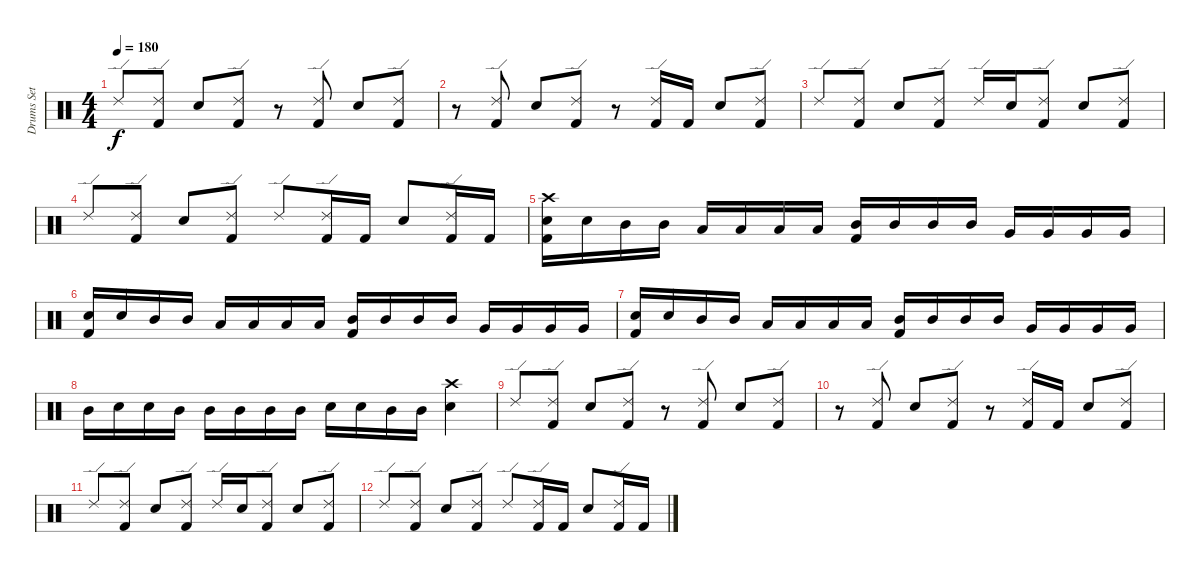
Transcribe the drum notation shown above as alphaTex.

\track ("Drums Set" "Drums Set") {instrument percussion}
\staff {score}
\articulation defaults
\ts (4 4)
\tempo 180
\clef neutral
\ks c "Ride (edge) 2".8{dy f}
("Ride (edge) 2" "Kick (hit) 2").8 "Snare (hit) 2".8 ("Ride (edge) 2" "Kick (hit) 2").8 r.8 ("Ride (edge) 2" "Kick (hit) 2").8 "Snare (hit) 2".8 ("Ride (edge) 2" "Kick (hit) 2").8 |
r.8 ("Ride (edge) 2" "Kick (hit) 2").8 "Snare (hit) 2".8 ("Ride (edge) 2" "Kick (hit) 2").8 r.8 ("Ride (edge) 2" "Kick (hit) 2").16 "Kick (hit) 2".16 "Snare (hit) 2".8 ("Ride (edge) 2" "Kick (hit) 2").8 |
"Ride (edge) 2".8 ("Ride (edge) 2" "Kick (hit) 2").8 "Snare (hit) 2".8 ("Ride (edge) 2" "Kick (hit) 2").8 "Ride (edge) 2".16 "Snare (hit) 2".16 ("Ride (edge) 2" "Kick (hit) 2").8 "Snare (hit) 2".8 ("Ride (edge) 2" "Kick (hit) 2").8 |
"Ride (edge) 2".8 ("Ride (edge) 2" "Kick (hit) 2").8 "Snare (hit) 2".8 ("Ride (edge) 2" "Kick (hit) 2").8 "Ride (edge) 2".8 ("Ride (edge) 2" "Kick (hit) 2").16 "Kick (hit) 2".16 "Snare (hit) 2".8 ("Ride (edge) 2" "Kick (hit) 2").16 "Kick (hit) 2".16 |
("Crash high (hit)" "Snare (hit) 2" "Kick (hit) 2").16 "Snare (hit) 2".16 "Mid Tom (hit)".16 "Mid Tom (hit)".16 "Low Tom (hit)".16 "Low Tom (hit)".16 "Low Tom (hit)".16 "Low Tom (hit)".16 ("Mid Tom (hit)" "Kick (hit) 2").16 "Mid Tom (hit)".16 "Mid Tom (hit)".16 "Mid Tom (hit)".16 "Very Low Tom (hit)".16 "Very Low Tom (hit)".16 "Very Low Tom (hit)".16 "Very Low Tom (hit)".16 |
("Snare (hit) 2" "Kick (hit) 2").16 "Snare (hit) 2".16 "Mid Tom (hit)".16 "Mid Tom (hit)".16 "Low Tom (hit)".16 "Low Tom (hit)".16 "Low Tom (hit)".16 "Low Tom (hit)".16 ("Mid Tom (hit)" "Kick (hit) 2").16 "Mid Tom (hit)".16 "Mid Tom (hit)".16 "Mid Tom (hit)".16 "Very Low Tom (hit)".16 "Very Low Tom (hit)".16 "Very Low Tom (hit)".16 "Very Low Tom (hit)".16 |
("Snare (hit) 2" "Kick (hit) 2").16 "Snare (hit) 2".16 "Mid Tom (hit)".16 "Mid Tom (hit)".16 "Low Tom (hit)".16 "Low Tom (hit)".16 "Low Tom (hit)".16 "Low Tom (hit)".16 ("Mid Tom (hit)" "Kick (hit) 2").16 "Mid Tom (hit)".16 "Mid Tom (hit)".16 "Mid Tom (hit)".16 "Very Low Tom (hit)".16 "Very Low Tom (hit)".16 "Very Low Tom (hit)".16 "Very Low Tom (hit)".16 |
"Mid Tom (hit)".16 "Snare (hit) 2".16 "Snare (hit) 2".16 "Mid Tom (hit)".16 "Mid Tom (hit)".16 "Mid Tom (hit)".16 "Mid Tom (hit)".16 "Mid Tom (hit)".16 "Snare (hit) 2".16 "Snare (hit) 2".16 "Mid Tom (hit)".16 "Mid Tom (hit)".16 ("Crash high (hit)" "Snare (hit) 2").4 |
"Ride (edge) 2".8 ("Ride (edge) 2" "Kick (hit) 2").8 "Snare (hit) 2".8 ("Ride (edge) 2" "Kick (hit) 2").8 r.8 ("Ride (edge) 2" "Kick (hit) 2").8 "Snare (hit) 2".8 ("Ride (edge) 2" "Kick (hit) 2").8 |
r.8 ("Ride (edge) 2" "Kick (hit) 2").8 "Snare (hit) 2".8 ("Ride (edge) 2" "Kick (hit) 2").8 r.8 ("Ride (edge) 2" "Kick (hit) 2").16 "Kick (hit) 2".16 "Snare (hit) 2".8 ("Ride (edge) 2" "Kick (hit) 2").8 |
"Ride (edge) 2".8 ("Ride (edge) 2" "Kick (hit) 2").8 "Snare (hit) 2".8 ("Ride (edge) 2" "Kick (hit) 2").8 "Ride (edge) 2".16 "Snare (hit) 2".16 ("Ride (edge) 2" "Kick (hit) 2").8 "Snare (hit) 2".8 ("Ride (edge) 2" "Kick (hit) 2").8 |
"Ride (edge) 2".8 ("Ride (edge) 2" "Kick (hit) 2").8 "Snare (hit) 2".8 ("Ride (edge) 2" "Kick (hit) 2").8 "Ride (edge) 2".8 ("Ride (edge) 2" "Kick (hit) 2").16 "Kick (hit) 2".16 "Snare (hit) 2".8 ("Ride (edge) 2" "Kick (hit) 2").16 "Kick (hit) 2".16
